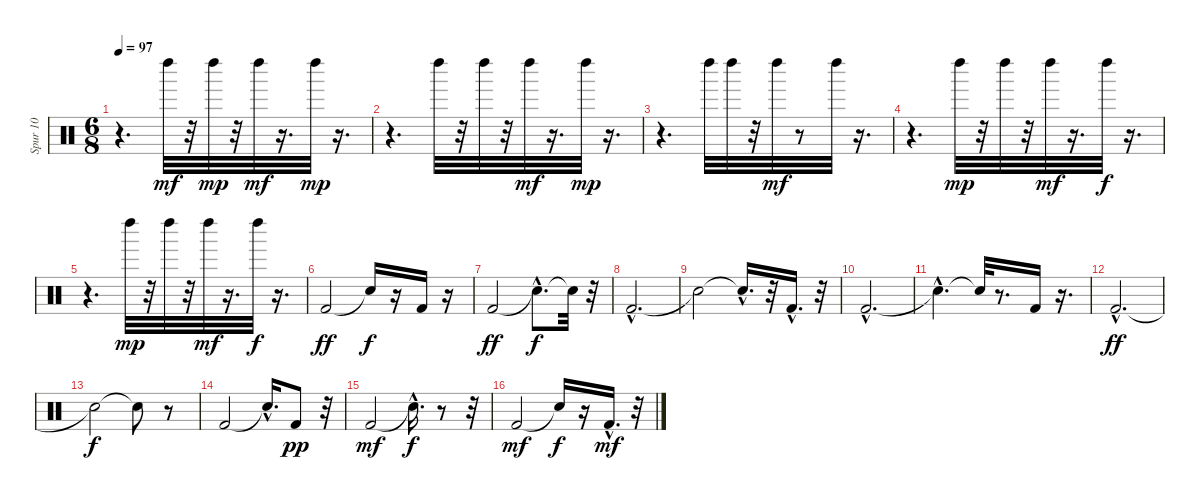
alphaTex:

\track ("Spur 10" "Spur 10") {instrument percussion}
\staff {score}
\articulation defaults
\ts (6 8)
\tempo 97
\clef neutral
\ks c
r.4{d dy mp} "Left Maraca (hit)".32{dy mf} r.32 "Left Maraca (hit)".32{dy mp} r.32 "Left Maraca (hit)".32{dy mf} r.16{d} "Left Maraca (hit)".32{dy mp} r.16{d} |
r.4{d} "Left Maraca (hit)".32 r.32 "Left Maraca (hit)".32 r.32 "Left Maraca (hit)".32{dy mf} r.16{d} "Left Maraca (hit)".32{dy mp} r.16{d} |
r.4{d} "Left Maraca (hit)".32 "Left Maraca (hit)".32 r.32 "Left Maraca (hit)".32{dy mf} r.8 "Left Maraca (hit)".32 r.16{d} |
r.4{d} "Left Maraca (hit)".32{dy mp} r.32 "Left Maraca (hit)".32 r.32 "Left Maraca (hit)".32{dy mf} r.16{d} "Left Maraca (hit)".32{dy f} r.16{d} |
r.4{d} "Left Maraca (hit)".32{dy mp} r.32 "Left Maraca (hit)".32 r.32 "Left Maraca (hit)".32{dy mf} r.16{d} "Left Maraca (hit)".32{dy f} r.16{d} |
"Kick (hit) 2".2{dy ff} "Snare (hit)"{t}.16{dy f} r.16 "Kick (hit) 2".16 r.16 |
"Kick (hit) 2".2{dy ff} "Snare (hit)"{hac t}.8{d dy f} "Snare (hit)"{t}.32 r.32 |
"Kick (hit) 2"{hac}.2{d} |
"Snare (hit)"{t}.2 "Snare (hit)"{hac t}.16{d} r.32 "Kick (hit) 2"{hac}.16{d} r.32 |
"Kick (hit) 2"{hac}.2{d} |
"Snare (hit)"{hac t}.4{d} "Snare (hit)"{t}.32 r.8{d} "Kick (hit) 2".16 r.16{d} |
"Kick (hit) 2"{hac}.2{d dy ff} |
"Snare (hit)"{t}.2{dy f} "Snare (hit)"{t}.8 r.8 |
"Kick (hit) 2".2 "Snare (hit)"{hac t}.16{d} "Kick (hit) 2".8{dy pp} r.32 |
"Kick (hit) 2".2{dy mf} "Snare (hit)"{hac t}.16{d dy f} r.8 r.32 |
"Kick (hit) 2".2{dy mf} "Snare (hit)"{t}.16{dy f} r.16 "Kick (hit) 2"{hac}.16{d dy mf} r.32
